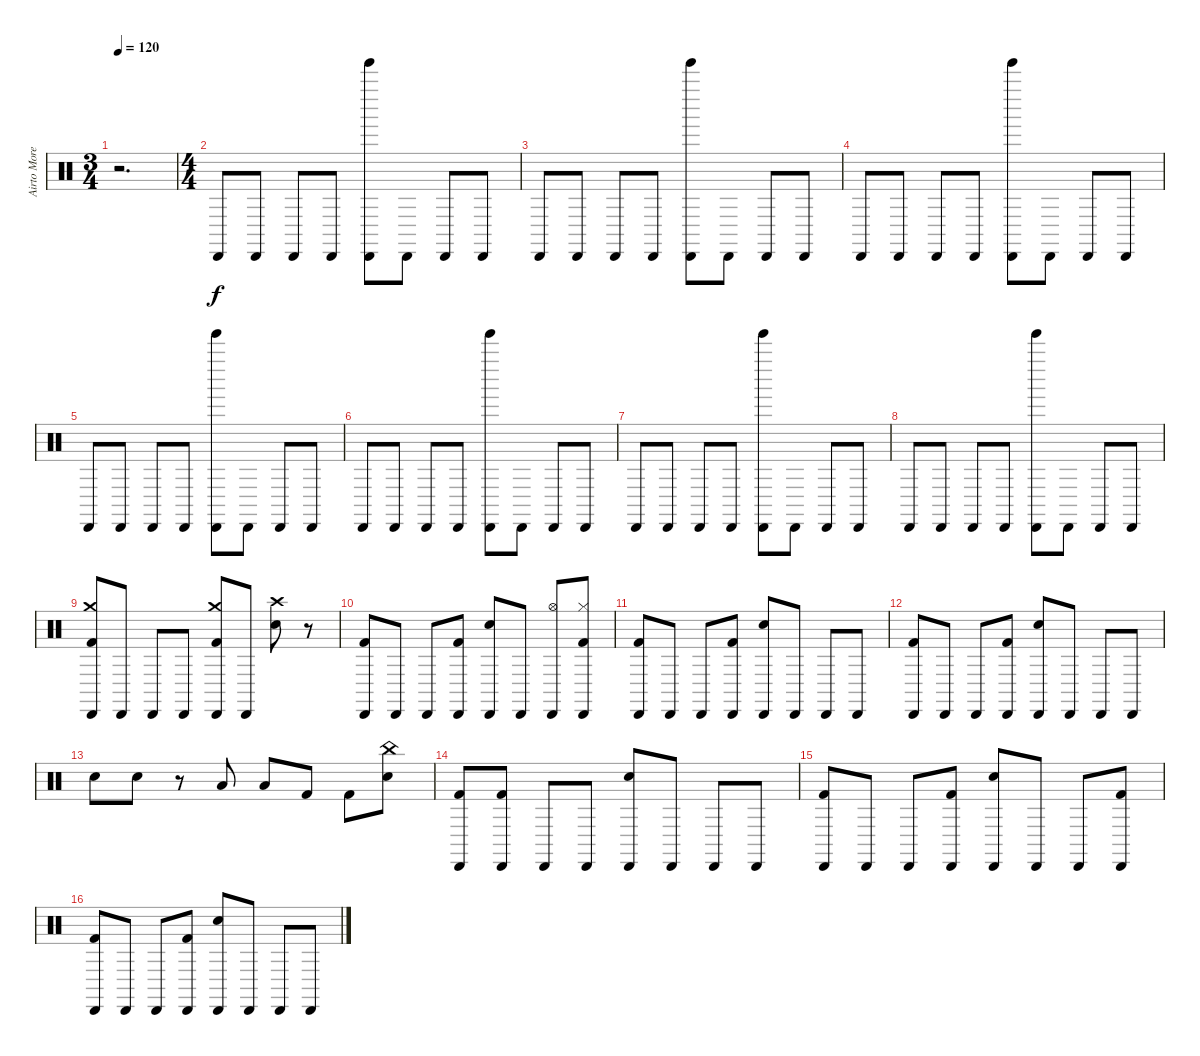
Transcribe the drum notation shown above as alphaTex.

\track ("Airto Moreira" "Airto More") {instrument percussion}
\staff {score}
\articulation defaults
\ts (3 4)
\tempo 120
\clef neutral
\ks c
r.2{d dy f} |
\ts (4 4)
"Cabasa (hit)".8 "Cabasa (hit)".8 "Cabasa (hit)".8 "Cabasa (hit)".8 ("Cabasa (hit)" "Tinkle Bell (hit)").8 "Cabasa (hit)".8 "Cabasa (hit)".8 "Cabasa (hit)".8 |
"Cabasa (hit)".8 "Cabasa (hit)".8 "Cabasa (hit)".8 "Cabasa (hit)".8 ("Cabasa (hit)" "Tinkle Bell (hit)").8 "Cabasa (hit)".8 "Cabasa (hit)".8 "Cabasa (hit)".8 |
"Cabasa (hit)".8 "Cabasa (hit)".8 "Cabasa (hit)".8 "Cabasa (hit)".8 ("Cabasa (hit)" "Tinkle Bell (hit)").8 "Cabasa (hit)".8 "Cabasa (hit)".8 "Cabasa (hit)".8 |
"Cabasa (hit)".8 "Cabasa (hit)".8 "Cabasa (hit)".8 "Cabasa (hit)".8 ("Cabasa (hit)" "Tinkle Bell (hit)").8 "Cabasa (hit)".8 "Cabasa (hit)".8 "Cabasa (hit)".8 |
"Cabasa (hit)".8 "Cabasa (hit)".8 "Cabasa (hit)".8 "Cabasa (hit)".8 ("Cabasa (hit)" "Tinkle Bell (hit)").8 "Cabasa (hit)".8 "Cabasa (hit)".8 "Cabasa (hit)".8 |
"Cabasa (hit)".8 "Cabasa (hit)".8 "Cabasa (hit)".8 "Cabasa (hit)".8 ("Cabasa (hit)" "Tinkle Bell (hit)").8 "Cabasa (hit)".8 "Cabasa (hit)".8 "Cabasa (hit)".8 |
"Cabasa (hit)".8 "Cabasa (hit)".8 "Cabasa (hit)".8 "Cabasa (hit)".8 ("Cabasa (hit)" "Tinkle Bell (hit)").8 "Cabasa (hit)".8 "Cabasa (hit)".8 "Cabasa (hit)".8 |
("Cabasa (hit)" "Kick (hit) 2" "Crash medium (hit)").8 "Cabasa (hit)".8 "Cabasa (hit)".8 "Cabasa (hit)".8 ("Cabasa (hit)" "Kick (hit) 2" "Crash medium (hit)").8 "Cabasa (hit)".8 ("Electric Snare (hit)" "Crash high (hit)").8 r.8 |
("Cabasa (hit)" "Kick (hit) 2").8 "Cabasa (hit)".8 "Cabasa (hit)".8 ("Cabasa (hit)" "Kick (hit) 2").8 ("Cabasa (hit)" "Electric Snare (hit)").8 "Cabasa (hit)".8 ("Cabasa (hit)" "Hi-Hat (open)").8 ("Cabasa (hit)" "Kick (hit) 2" "Hi-Hat (closed)").8 |
("Cabasa (hit)" "Kick (hit) 2").8 "Cabasa (hit)".8 "Cabasa (hit)".8 ("Cabasa (hit)" "Kick (hit) 2").8 ("Cabasa (hit)" "Electric Snare (hit)").8 "Cabasa (hit)".8 "Cabasa (hit)".8 "Cabasa (hit)".8 |
("Cabasa (hit)" "Kick (hit) 2").8 "Cabasa (hit)".8 "Cabasa (hit)".8 ("Cabasa (hit)" "Kick (hit) 2").8 ("Cabasa (hit)" "Electric Snare (hit)").8 "Cabasa (hit)".8 "Cabasa (hit)".8 "Cabasa (hit)".8 |
"Electric Snare (hit)".8 "Electric Snare (hit)".8 r.8 "Low Tom (hit)".8 "Low Tom (hit)".8 "Kick (hit) 2".8 "Kick (hit) 2".8 ("Electric Snare (hit)" "China (hit)").8 |
("Cabasa (hit)" "Kick (hit) 2").8 ("Cabasa (hit)" "Kick (hit) 2").8 "Cabasa (hit)".8 "Cabasa (hit)".8 ("Cabasa (hit)" "Electric Snare (hit)").8 "Cabasa (hit)".8 "Cabasa (hit)".8 "Cabasa (hit)".8 |
("Cabasa (hit)" "Kick (hit) 2").8 "Cabasa (hit)".8 "Cabasa (hit)".8 ("Cabasa (hit)" "Kick (hit) 2").8 ("Cabasa (hit)" "Electric Snare (hit)").8 "Cabasa (hit)".8 "Cabasa (hit)".8 ("Cabasa (hit)" "Kick (hit) 2").8 |
("Cabasa (hit)" "Kick (hit) 2").8 "Cabasa (hit)".8 "Cabasa (hit)".8 ("Cabasa (hit)" "Kick (hit) 2").8 ("Cabasa (hit)" "Electric Snare (hit)").8 "Cabasa (hit)".8 "Cabasa (hit)".8 "Cabasa (hit)".8
